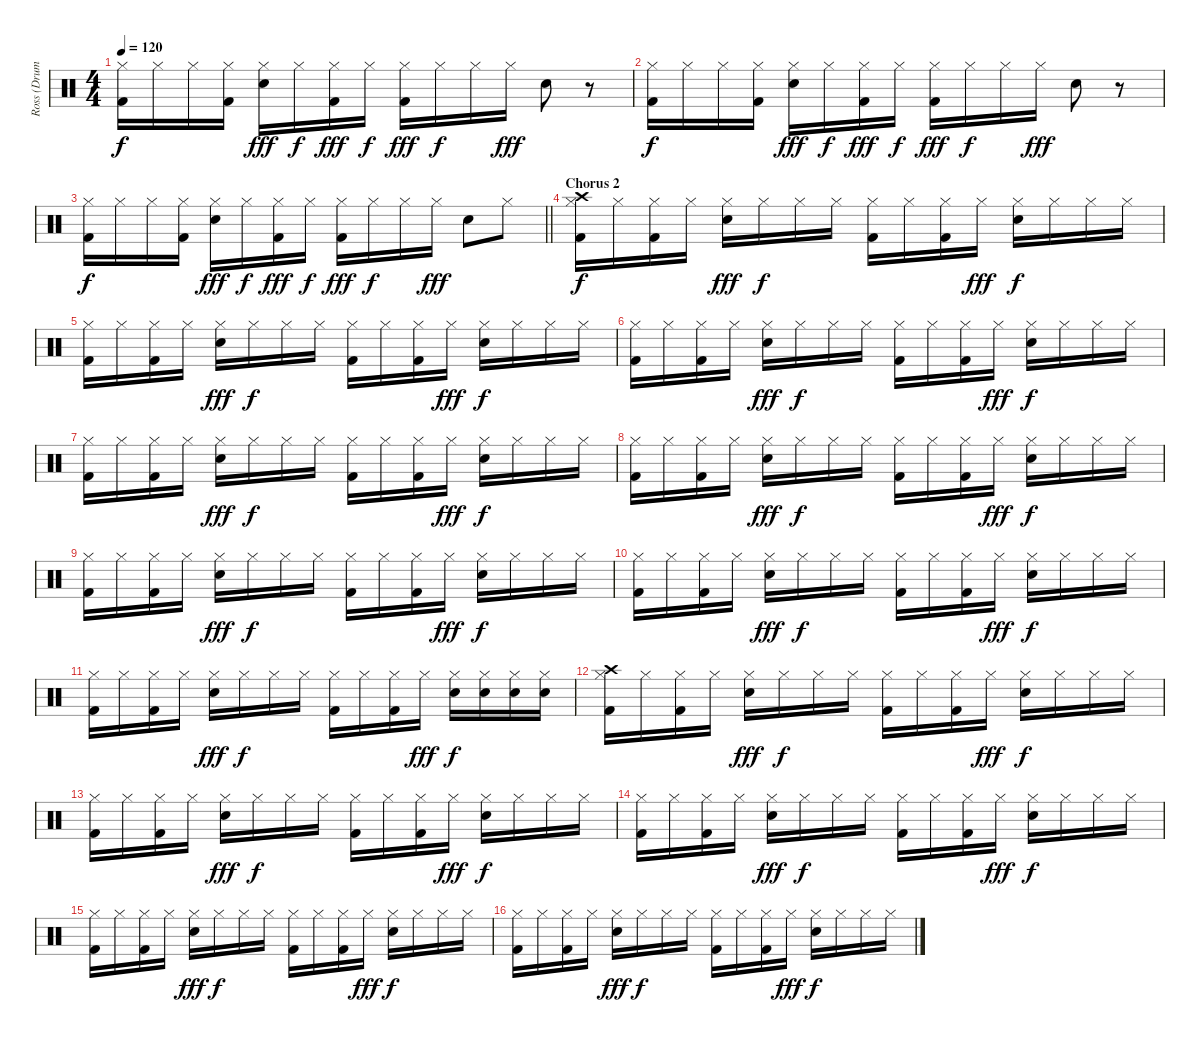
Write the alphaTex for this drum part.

\track ("Ross (Drums)" "Ross (Drum") {instrument percussion}
\staff {score}
\articulation defaults
\ts (4 4)
\tempo 120
\clef neutral
\ks c
("Hi-Hat (closed)" "Kick (hit) 2").16{dy f} "Hi-Hat (closed)".16 "Hi-Hat (closed)".16 ("Hi-Hat (closed)" "Kick (hit) 2").16 ("Hi-Hat (closed)" "Snare (hit) 2").16{dy fff} "Hi-Hat (closed)".16{dy f} ("Hi-Hat (closed)" "Kick (hit) 2").16{dy fff} "Hi-Hat (closed)".16{dy f} ("Hi-Hat (closed)" "Kick (hit) 2").16{dy fff} "Hi-Hat (closed)".16{dy f} "Hi-Hat (closed)".16 "Hi-Hat (closed)".16{dy fff} "Snare (hit) 2".8 r.8 |
("Hi-Hat (closed)" "Kick (hit) 2").16{dy f} "Hi-Hat (closed)".16 "Hi-Hat (closed)".16 ("Hi-Hat (closed)" "Kick (hit) 2").16 ("Hi-Hat (closed)" "Snare (hit) 2").16{dy fff} "Hi-Hat (closed)".16{dy f} ("Hi-Hat (closed)" "Kick (hit) 2").16{dy fff} "Hi-Hat (closed)".16{dy f} ("Hi-Hat (closed)" "Kick (hit) 2").16{dy fff} "Hi-Hat (closed)".16{dy f} "Hi-Hat (closed)".16 "Hi-Hat (closed)".16{dy fff} "Snare (hit) 2".8 r.8 |
\barLineRight lightlight
("Hi-Hat (closed)" "Kick (hit) 2").16{dy f} "Hi-Hat (closed)".16 "Hi-Hat (closed)".16 ("Hi-Hat (closed)" "Kick (hit) 2").16 ("Hi-Hat (closed)" "Snare (hit) 2").16{dy fff} "Hi-Hat (closed)".16{dy f} ("Hi-Hat (closed)" "Kick (hit) 2").16{dy fff} "Hi-Hat (closed)".16{dy f} ("Hi-Hat (closed)" "Kick (hit) 2").16{dy fff} "Hi-Hat (closed)".16{dy f} "Hi-Hat (closed)".16 "Hi-Hat (closed)".16{dy fff} "Snare (hit) 2".8 "Hi-Hat (closed)".8 |
\section ("" "Chorus 2")
("Crash high (hit)" "Hi-Hat (closed)" "Kick (hit) 2").16{dy f} "Hi-Hat (closed)".16 ("Hi-Hat (closed)" "Kick (hit) 2").16 "Hi-Hat (closed)".16 ("Hi-Hat (closed)" "Snare (hit) 2").16{dy fff} "Hi-Hat (closed)".16{dy f} "Hi-Hat (closed)".16 "Hi-Hat (closed)".16 ("Hi-Hat (closed)" "Kick (hit) 2").16 "Hi-Hat (closed)".16 ("Hi-Hat (closed)" "Kick (hit) 2").16 "Hi-Hat (closed)".16{dy fff} ("Hi-Hat (closed)" "Snare (hit) 2").16{dy f} "Hi-Hat (closed)".16 "Hi-Hat (closed)".16 "Hi-Hat (closed)".16 |
("Hi-Hat (closed)" "Kick (hit) 2").16 "Hi-Hat (closed)".16 ("Hi-Hat (closed)" "Kick (hit) 2").16 "Hi-Hat (closed)".16 ("Hi-Hat (closed)" "Snare (hit) 2").16{dy fff} "Hi-Hat (closed)".16{dy f} "Hi-Hat (closed)".16 "Hi-Hat (closed)".16 ("Hi-Hat (closed)" "Kick (hit) 2").16 "Hi-Hat (closed)".16 ("Hi-Hat (closed)" "Kick (hit) 2").16 "Hi-Hat (closed)".16{dy fff} ("Hi-Hat (closed)" "Snare (hit) 2").16{dy f} "Hi-Hat (closed)".16 "Hi-Hat (closed)".16 "Hi-Hat (closed)".16 |
("Hi-Hat (closed)" "Kick (hit) 2").16 "Hi-Hat (closed)".16 ("Hi-Hat (closed)" "Kick (hit) 2").16 "Hi-Hat (closed)".16 ("Hi-Hat (closed)" "Snare (hit) 2").16{dy fff} "Hi-Hat (closed)".16{dy f} "Hi-Hat (closed)".16 "Hi-Hat (closed)".16 ("Hi-Hat (closed)" "Kick (hit) 2").16 "Hi-Hat (closed)".16 ("Hi-Hat (closed)" "Kick (hit) 2").16 "Hi-Hat (closed)".16{dy fff} ("Hi-Hat (closed)" "Snare (hit) 2").16{dy f} "Hi-Hat (closed)".16 "Hi-Hat (closed)".16 "Hi-Hat (closed)".16 |
("Hi-Hat (closed)" "Kick (hit) 2").16 "Hi-Hat (closed)".16 ("Hi-Hat (closed)" "Kick (hit) 2").16 "Hi-Hat (closed)".16 ("Hi-Hat (closed)" "Snare (hit) 2").16{dy fff} "Hi-Hat (closed)".16{dy f} "Hi-Hat (closed)".16 "Hi-Hat (closed)".16 ("Hi-Hat (closed)" "Kick (hit) 2").16 "Hi-Hat (closed)".16 ("Hi-Hat (closed)" "Kick (hit) 2").16 "Hi-Hat (closed)".16{dy fff} ("Hi-Hat (closed)" "Snare (hit) 2").16{dy f} "Hi-Hat (closed)".16 "Hi-Hat (closed)".16 "Hi-Hat (closed)".16 |
("Hi-Hat (closed)" "Kick (hit) 2").16 "Hi-Hat (closed)".16 ("Hi-Hat (closed)" "Kick (hit) 2").16 "Hi-Hat (closed)".16 ("Hi-Hat (closed)" "Snare (hit) 2").16{dy fff} "Hi-Hat (closed)".16{dy f} "Hi-Hat (closed)".16 "Hi-Hat (closed)".16 ("Hi-Hat (closed)" "Kick (hit) 2").16 "Hi-Hat (closed)".16 ("Hi-Hat (closed)" "Kick (hit) 2").16 "Hi-Hat (closed)".16{dy fff} ("Hi-Hat (closed)" "Snare (hit) 2").16{dy f} "Hi-Hat (closed)".16 "Hi-Hat (closed)".16 "Hi-Hat (closed)".16 |
("Hi-Hat (closed)" "Kick (hit) 2").16 "Hi-Hat (closed)".16 ("Hi-Hat (closed)" "Kick (hit) 2").16 "Hi-Hat (closed)".16 ("Hi-Hat (closed)" "Snare (hit) 2").16{dy fff} "Hi-Hat (closed)".16{dy f} "Hi-Hat (closed)".16 "Hi-Hat (closed)".16 ("Hi-Hat (closed)" "Kick (hit) 2").16 "Hi-Hat (closed)".16 ("Hi-Hat (closed)" "Kick (hit) 2").16 "Hi-Hat (closed)".16{dy fff} ("Hi-Hat (closed)" "Snare (hit) 2").16{dy f} "Hi-Hat (closed)".16 "Hi-Hat (closed)".16 "Hi-Hat (closed)".16 |
("Hi-Hat (closed)" "Kick (hit) 2").16 "Hi-Hat (closed)".16 ("Hi-Hat (closed)" "Kick (hit) 2").16 "Hi-Hat (closed)".16 ("Hi-Hat (closed)" "Snare (hit) 2").16{dy fff} "Hi-Hat (closed)".16{dy f} "Hi-Hat (closed)".16 "Hi-Hat (closed)".16 ("Hi-Hat (closed)" "Kick (hit) 2").16 "Hi-Hat (closed)".16 ("Hi-Hat (closed)" "Kick (hit) 2").16 "Hi-Hat (closed)".16{dy fff} ("Hi-Hat (closed)" "Snare (hit) 2").16{dy f} "Hi-Hat (closed)".16 "Hi-Hat (closed)".16 "Hi-Hat (closed)".16 |
("Hi-Hat (closed)" "Kick (hit) 2").16 "Hi-Hat (closed)".16 ("Hi-Hat (closed)" "Kick (hit) 2").16 "Hi-Hat (closed)".16 ("Hi-Hat (closed)" "Snare (hit) 2").16{dy fff} "Hi-Hat (closed)".16{dy f} "Hi-Hat (closed)".16 "Hi-Hat (closed)".16 ("Hi-Hat (closed)" "Kick (hit) 2").16 "Hi-Hat (closed)".16 ("Hi-Hat (closed)" "Kick (hit) 2").16 "Hi-Hat (closed)".16{dy fff} ("Hi-Hat (closed)" "Snare (hit) 2").16{dy f} ("Hi-Hat (closed)" "Snare (hit) 2").16 ("Hi-Hat (closed)" "Snare (hit) 2").16 ("Hi-Hat (closed)" "Snare (hit) 2").16 |
("Crash high (hit)" "Hi-Hat (closed)" "Kick (hit) 2").16 "Hi-Hat (closed)".16 ("Hi-Hat (closed)" "Kick (hit) 2").16 "Hi-Hat (closed)".16 ("Hi-Hat (closed)" "Snare (hit) 2").16{dy fff} "Hi-Hat (closed)".16{dy f} "Hi-Hat (closed)".16 "Hi-Hat (closed)".16 ("Hi-Hat (closed)" "Kick (hit) 2").16 "Hi-Hat (closed)".16 ("Hi-Hat (closed)" "Kick (hit) 2").16 "Hi-Hat (closed)".16{dy fff} ("Hi-Hat (closed)" "Snare (hit) 2").16{dy f} "Hi-Hat (closed)".16 "Hi-Hat (closed)".16 "Hi-Hat (closed)".16 |
("Hi-Hat (closed)" "Kick (hit) 2").16 "Hi-Hat (closed)".16 ("Hi-Hat (closed)" "Kick (hit) 2").16 "Hi-Hat (closed)".16 ("Hi-Hat (closed)" "Snare (hit) 2").16{dy fff} "Hi-Hat (closed)".16{dy f} "Hi-Hat (closed)".16 "Hi-Hat (closed)".16 ("Hi-Hat (closed)" "Kick (hit) 2").16 "Hi-Hat (closed)".16 ("Hi-Hat (closed)" "Kick (hit) 2").16 "Hi-Hat (closed)".16{dy fff} ("Hi-Hat (closed)" "Snare (hit) 2").16{dy f} "Hi-Hat (closed)".16 "Hi-Hat (closed)".16 "Hi-Hat (closed)".16 |
("Hi-Hat (closed)" "Kick (hit) 2").16 "Hi-Hat (closed)".16 ("Hi-Hat (closed)" "Kick (hit) 2").16 "Hi-Hat (closed)".16 ("Hi-Hat (closed)" "Snare (hit) 2").16{dy fff} "Hi-Hat (closed)".16{dy f} "Hi-Hat (closed)".16 "Hi-Hat (closed)".16 ("Hi-Hat (closed)" "Kick (hit) 2").16 "Hi-Hat (closed)".16 ("Hi-Hat (closed)" "Kick (hit) 2").16 "Hi-Hat (closed)".16{dy fff} ("Hi-Hat (closed)" "Snare (hit) 2").16{dy f} "Hi-Hat (closed)".16 "Hi-Hat (closed)".16 "Hi-Hat (closed)".16 |
("Hi-Hat (closed)" "Kick (hit) 2").16 "Hi-Hat (closed)".16 ("Hi-Hat (closed)" "Kick (hit) 2").16 "Hi-Hat (closed)".16 ("Hi-Hat (closed)" "Snare (hit) 2").16{dy fff} "Hi-Hat (closed)".16{dy f} "Hi-Hat (closed)".16 "Hi-Hat (closed)".16 ("Hi-Hat (closed)" "Kick (hit) 2").16 "Hi-Hat (closed)".16 ("Hi-Hat (closed)" "Kick (hit) 2").16 "Hi-Hat (closed)".16{dy fff} ("Hi-Hat (closed)" "Snare (hit) 2").16{dy f} "Hi-Hat (closed)".16 "Hi-Hat (closed)".16 "Hi-Hat (closed)".16 |
("Hi-Hat (closed)" "Kick (hit) 2").16 "Hi-Hat (closed)".16 ("Hi-Hat (closed)" "Kick (hit) 2").16 "Hi-Hat (closed)".16 ("Hi-Hat (closed)" "Snare (hit) 2").16{dy fff} "Hi-Hat (closed)".16{dy f} "Hi-Hat (closed)".16 "Hi-Hat (closed)".16 ("Hi-Hat (closed)" "Kick (hit) 2").16 "Hi-Hat (closed)".16 ("Hi-Hat (closed)" "Kick (hit) 2").16 "Hi-Hat (closed)".16{dy fff} ("Hi-Hat (closed)" "Snare (hit) 2").16{dy f} "Hi-Hat (closed)".16 "Hi-Hat (closed)".16 "Hi-Hat (closed)".16
